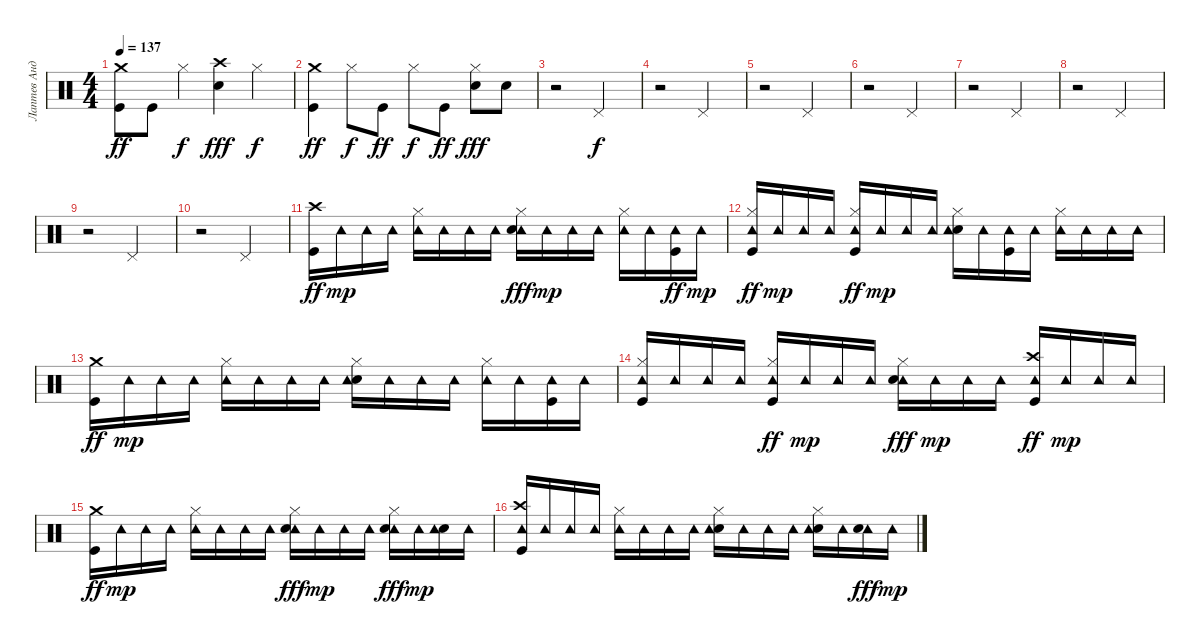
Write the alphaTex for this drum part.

\track ("Лаптев Андрей" "Лаптев Анд") {instrument percussion}
\staff {score}
\articulation defaults
\ts (4 4)
\tempo 137
\clef neutral
\ks c
("Kick (hit)" "Crash medium (hit)").8{dy ff} "Kick (hit)".8 "Hi-Hat (closed)".4{dy f} ("Snare (hit) 2" "Crash high (hit)").4{dy fff} "Hi-Hat (closed)".4{dy f} |
("Crash medium (hit)" "Kick (hit)").4{dy ff} "Hi-Hat (closed)".8{dy f} "Kick (hit)".8{dy ff} "Hi-Hat (closed)".8{dy f} "Kick (hit)".8{dy ff} ("Snare (hit) 2" "Hi-Hat (closed)").8{dy fff} "Snare (hit) 2".8 |
r.2 "Pedal Hi-Hat (hit)".2{dy f} |
r.2 "Pedal Hi-Hat (hit)".2 |
r.2 "Pedal Hi-Hat (hit)".2 |
r.2 "Pedal Hi-Hat (hit)".2 |
r.2 "Pedal Hi-Hat (hit)".2 |
r.2 "Pedal Hi-Hat (hit)".2 |
r.2 "Pedal Hi-Hat (hit)".2 |
r.2 "Pedal Hi-Hat (hit)".2 |
("Kick (hit)" "Crash high (hit)").16{dy ff} "Tambourine (hit)".16{dy mp} "Tambourine (hit)".16 "Tambourine (hit)".16 ("Tambourine (hit)" "Hi-Hat (closed)").16 "Tambourine (hit)".16 "Tambourine (hit)".16 "Tambourine (hit)".16 ("Tambourine (hit)" "Snare (hit) 2" "Hi-Hat (closed)").16{dy fff} "Tambourine (hit)".16{dy mp} "Tambourine (hit)".16 "Tambourine (hit)".16 ("Tambourine (hit)" "Hi-Hat (closed)").16 "Tambourine (hit)".16 ("Tambourine (hit)" "Kick (hit)").16{dy ff} "Tambourine (hit)".16{dy mp} |
("Tambourine (hit)" "Kick (hit)" "Hi-Hat (closed)").16{dy ff} "Tambourine (hit)".16{dy mp} "Tambourine (hit)".16 "Tambourine (hit)".16 ("Tambourine (hit)" "Kick (hit)" "Hi-Hat (closed)").16{dy ff} "Tambourine (hit)".16{dy mp} "Tambourine (hit)".16 "Tambourine (hit)".16 ("Snare (hit) 2" "Tambourine (hit)" "Hi-Hat (closed)").16 "Tambourine (hit)".16 ("Kick (hit)" "Tambourine (hit)").16 "Tambourine (hit)".16 ("Tambourine (hit)" "Hi-Hat (closed)").16 "Tambourine (hit)".16 "Tambourine (hit)".16 "Tambourine (hit)".16 |
("Kick (hit)" "Crash medium (hit)").16{dy ff} "Tambourine (hit)".16{dy mp} "Tambourine (hit)".16 "Tambourine (hit)".16 ("Tambourine (hit)" "Hi-Hat (closed)").16 "Tambourine (hit)".16 "Tambourine (hit)".16 "Tambourine (hit)".16 ("Snare (hit) 2" "Tambourine (hit)" "Hi-Hat (closed)").16 "Tambourine (hit)".16 "Tambourine (hit)".16 "Tambourine (hit)".16 ("Tambourine (hit)" "Hi-Hat (closed)").16 "Tambourine (hit)".16 ("Kick (hit)" "Tambourine (hit)").16 "Tambourine (hit)".16 |
("Kick (hit)" "Tambourine (hit)" "Hi-Hat (closed)").16 "Tambourine (hit)".16 "Tambourine (hit)".16 "Tambourine (hit)".16 ("Tambourine (hit)" "Kick (hit)" "Hi-Hat (closed)").16{dy ff} "Tambourine (hit)".16{dy mp} "Tambourine (hit)".16 "Tambourine (hit)".16 ("Tambourine (hit)" "Snare (hit) 2" "Hi-Hat (closed)").16{dy fff} "Tambourine (hit)".16{dy mp} "Tambourine (hit)".16 "Tambourine (hit)".16 ("Tambourine (hit)" "Crash high (hit)" "Kick (hit)").16{dy ff} "Tambourine (hit)".16{dy mp} "Tambourine (hit)".16 "Tambourine (hit)".16 |
("Crash medium (hit)" "Kick (hit)").16{dy ff} "Tambourine (hit)".16{dy mp} "Tambourine (hit)".16 "Tambourine (hit)".16 ("Tambourine (hit)" "Hi-Hat (closed)").16 "Tambourine (hit)".16 "Tambourine (hit)".16 "Tambourine (hit)".16 ("Tambourine (hit)" "Snare (hit) 2" "Hi-Hat (closed)").16{dy fff} "Tambourine (hit)".16{dy mp} "Tambourine (hit)".16 "Tambourine (hit)".16 ("Tambourine (hit)" "Snare (hit) 2" "Hi-Hat (closed)").16{dy fff} "Tambourine (hit)".16{dy mp} ("Snare (hit) 2" "Tambourine (hit)").16 "Tambourine (hit)".16 |
("Kick (hit)" "Crash high (hit)" "Tambourine (hit)").16 "Tambourine (hit)".16 "Tambourine (hit)".16 "Tambourine (hit)".16 ("Tambourine (hit)" "Hi-Hat (closed)").16 "Tambourine (hit)".16 "Tambourine (hit)".16 "Tambourine (hit)".16 ("Snare (hit) 2" "Tambourine (hit)" "Hi-Hat (closed)").16 "Tambourine (hit)".16 "Tambourine (hit)".16 "Tambourine (hit)".16 ("Snare (hit) 2" "Tambourine (hit)" "Hi-Hat (closed)").16 "Tambourine (hit)".16 ("Tambourine (hit)" "Snare (hit) 2").16{dy fff} "Tambourine (hit)".16{dy mp}
